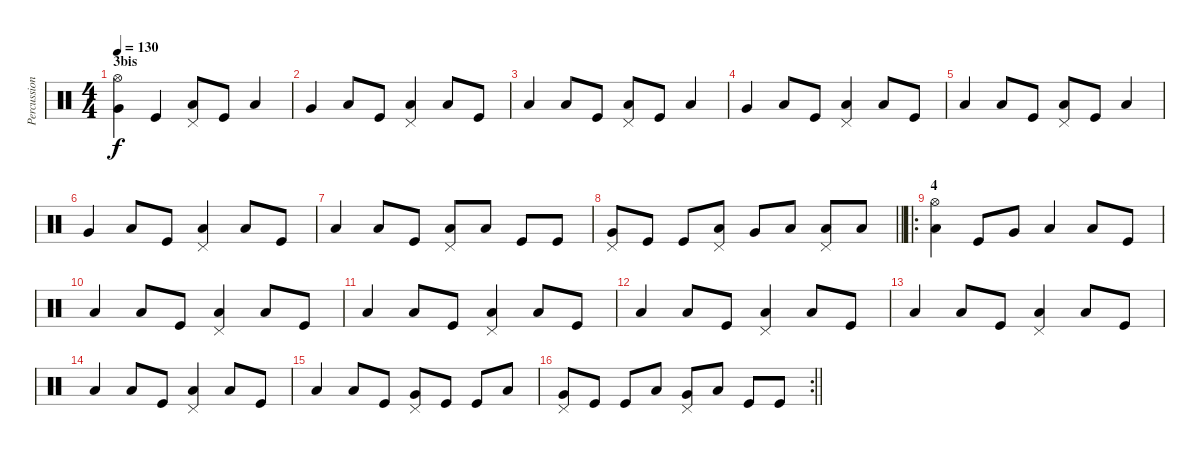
\track ("Percussioni" "Percussion") {instrument percussion}
\staff {score}
\articulation defaults
\ts (4 4)
\section ("" "3bis")
\tempo 130
\clef neutral
\ks c
("Hi-Hat (open)" "Very Low Tom (hit)").4{dy f} "Kick (hit)".4 ("Low Floor Tom (hit)" "Pedal Hi-Hat (hit)").8 "Kick (hit)".8 "Low Floor Tom (hit)".4 |
"Very Low Tom (hit)".4 "Low Floor Tom (hit)".8 "Kick (hit)".8 ("Low Floor Tom (hit)" "Pedal Hi-Hat (hit)").4 "Low Floor Tom (hit)".8 "Kick (hit)".8 |
"Low Floor Tom (hit)".4 "Low Floor Tom (hit)".8 "Kick (hit)".8 ("Low Floor Tom (hit)" "Pedal Hi-Hat (hit)").8 "Kick (hit)".8 "Low Floor Tom (hit)".4 |
"Very Low Tom (hit)".4 "Low Floor Tom (hit)".8 "Kick (hit)".8 ("Low Floor Tom (hit)" "Pedal Hi-Hat (hit)").4 "Low Floor Tom (hit)".8 "Kick (hit)".8 |
"Low Floor Tom (hit)".4 "Low Floor Tom (hit)".8 "Kick (hit)".8 ("Low Floor Tom (hit)" "Pedal Hi-Hat (hit)").8 "Kick (hit)".8 "Low Floor Tom (hit)".4 |
"Very Low Tom (hit)".4 "Low Floor Tom (hit)".8 "Kick (hit)".8 ("Low Floor Tom (hit)" "Pedal Hi-Hat (hit)").4 "Low Floor Tom (hit)".8 "Kick (hit)".8 |
"Low Floor Tom (hit)".4 "Low Floor Tom (hit)".8 "Kick (hit)".8 ("Low Floor Tom (hit)" "Pedal Hi-Hat (hit)").8 "Low Floor Tom (hit)".8 "Kick (hit)".8 "Kick (hit)".8 |
\barLineRight lightlight
("Very Low Tom (hit)" "Pedal Hi-Hat (hit)").8 "Kick (hit)".8 "Kick (hit)".8 ("Low Floor Tom (hit)" "Pedal Hi-Hat (hit)").8 "Very Low Tom (hit)".8 "Low Floor Tom (hit)".8 ("Low Floor Tom (hit)" "Pedal Hi-Hat (hit)").8 "Low Floor Tom (hit)".8 |
\ro
\section ("" "4")
("Hi-Hat (open)" "Low Tom (hit)").4 "Kick (hit)".8 "Very Low Tom (hit)".8 "Low Floor Tom (hit)".4 "Low Floor Tom (hit)".8 "Kick (hit)".8 |
"Low Floor Tom (hit)".4 "Low Floor Tom (hit)".8 "Kick (hit)".8 ("Low Floor Tom (hit)" "Pedal Hi-Hat (hit)").4 "Low Floor Tom (hit)".8 "Kick (hit)".8 |
"Low Floor Tom (hit)".4 "Low Floor Tom (hit)".8 "Kick (hit)".8 ("Low Floor Tom (hit)" "Pedal Hi-Hat (hit)").4 "Low Floor Tom (hit)".8 "Kick (hit)".8 |
"Low Floor Tom (hit)".4 "Low Floor Tom (hit)".8 "Kick (hit)".8 ("Low Floor Tom (hit)" "Pedal Hi-Hat (hit)").4 "Low Floor Tom (hit)".8 "Kick (hit)".8 |
"Low Floor Tom (hit)".4 "Low Floor Tom (hit)".8 "Kick (hit)".8 ("Low Floor Tom (hit)" "Pedal Hi-Hat (hit)").4 "Low Floor Tom (hit)".8 "Kick (hit)".8 |
"Low Floor Tom (hit)".4 "Low Floor Tom (hit)".8 "Kick (hit)".8 ("Low Floor Tom (hit)" "Pedal Hi-Hat (hit)").4 "Low Floor Tom (hit)".8 "Kick (hit)".8 |
"Low Floor Tom (hit)".4 "Low Floor Tom (hit)".8 "Kick (hit)".8 ("Very Low Tom (hit)" "Pedal Hi-Hat (hit)").8 "Kick (hit)".8 "Kick (hit)".8 "Low Floor Tom (hit)".8 |
\rc 2
\barLineRight lightlight
("Very Low Tom (hit)" "Pedal Hi-Hat (hit)").8 "Kick (hit)".8 "Kick (hit)".8 "Low Floor Tom (hit)".8 ("Very Low Tom (hit)" "Pedal Hi-Hat (hit)").8 "Low Floor Tom (hit)".8 "Kick (hit)".8 "Kick (hit)".8
